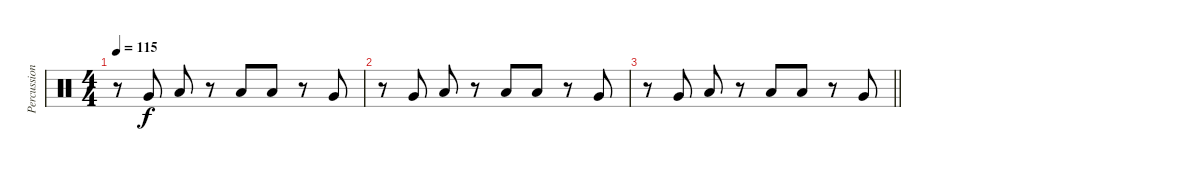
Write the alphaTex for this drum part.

\track ("Percussion" "Percussion") {instrument percussion}
\staff {score}
\articulation defaults
\ts (4 4)
\tempo 115
\clef neutral
\ks c
r.8{dy f} "Very Low Tom (hit)".8 "Low Tom (hit)".8 r.8 "Low Tom (hit)".8 "Low Tom (hit)".8 r.8 "Very Low Tom (hit)".8 |
r.8 "Very Low Tom (hit)".8 "Low Tom (hit)".8 r.8 "Low Tom (hit)".8 "Low Tom (hit)".8 r.8 "Very Low Tom (hit)".8 |
\barLineRight lightlight
r.8 "Very Low Tom (hit)".8 "Low Tom (hit)".8 r.8 "Low Tom (hit)".8 "Low Tom (hit)".8 r.8 "Very Low Tom (hit)".8
